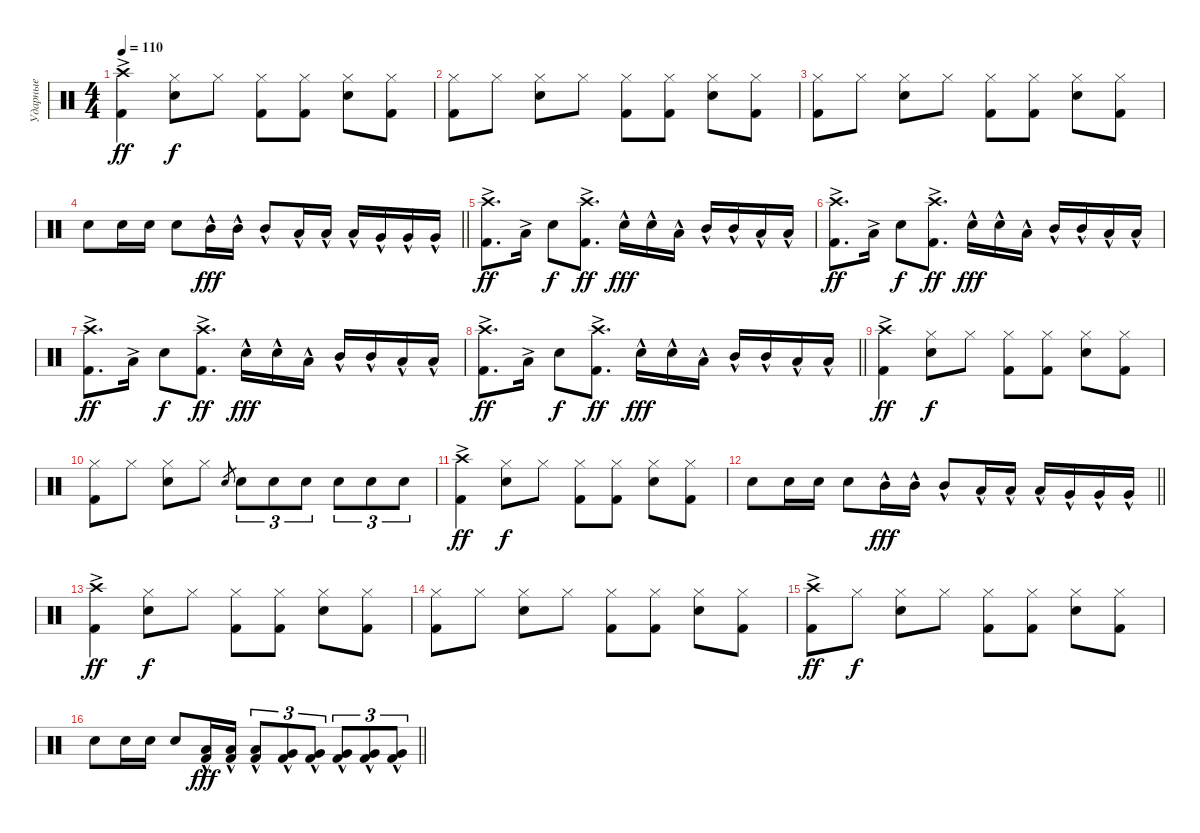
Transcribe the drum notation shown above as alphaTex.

\track ("Ударные" "Ударные") {instrument percussion}
\staff {score}
\articulation defaults
\ts (4 4)
\tempo 110
\clef neutral
\ks c
("Kick (hit) 2" "Crash high (hit)"{ac}).4{dy ff} ("Snare (hit) 2" "Hi-Hat (closed)").8{dy f} "Hi-Hat (closed)".8 ("Kick (hit) 2" "Hi-Hat (closed)").8 ("Kick (hit) 2" "Hi-Hat (closed)").8 ("Snare (hit) 2" "Hi-Hat (closed)").8 ("Kick (hit) 2" "Hi-Hat (closed)").8 |
("Kick (hit) 2" "Hi-Hat (closed)").8 "Hi-Hat (closed)".8 ("Snare (hit) 2" "Hi-Hat (closed)").8 "Hi-Hat (closed)".8 ("Kick (hit) 2" "Hi-Hat (closed)").8 ("Kick (hit) 2" "Hi-Hat (closed)").8 ("Snare (hit) 2" "Hi-Hat (closed)").8 ("Kick (hit) 2" "Hi-Hat (closed)").8 |
("Kick (hit) 2" "Hi-Hat (closed)").8 "Hi-Hat (closed)".8 ("Snare (hit) 2" "Hi-Hat (closed)").8 "Hi-Hat (closed)".8 ("Kick (hit) 2" "Hi-Hat (closed)").8 ("Kick (hit) 2" "Hi-Hat (closed)").8 ("Snare (hit) 2" "Hi-Hat (closed)").8 ("Kick (hit) 2" "Hi-Hat (closed)").8 |
\barLineRight lightlight "Snare (hit) 2".8 "Snare (hit) 2".16 "Snare (hit) 2".16 "Snare (hit) 2".8 "Mid Tom (hit)"{hac}.16{dy fff} "Mid Tom (hit)"{hac}.16 "Mid Tom (hit)"{hac}.8 "Low Tom (hit)"{hac}.16 "Low Tom (hit)"{hac}.16 "Low Tom (hit)"{hac}.16 "Very Low Tom (hit)"{hac}.16 "Very Low Tom (hit)"{hac}.16 "Very Low Tom (hit)"{hac}.16
|
("Kick (hit) 2" "Crash high (hit)"{ac}).8{d dy ff} "Low Tom (hit)"{ac}.16 "Snare (hit) 2".8{dy f} ("Kick (hit) 2" "Crash high (hit)"{ac}).8{d dy ff} "Snare (hit) 2"{hac}.16{dy fff} "Snare (hit) 2"{hac}.16 "Low Tom (hit)"{hac}.16 "Mid Tom (hit)"{hac}.16 "Mid Tom (hit)"{hac}.16 "Low Tom (hit)"{hac}.16 "Low Tom (hit)"{hac}.16 |
("Kick (hit) 2" "Crash high (hit)"{ac}).8{d dy ff} "Low Tom (hit)"{ac}.16 "Snare (hit) 2".8{dy f} ("Kick (hit) 2" "Crash high (hit)"{ac}).8{d dy ff} "Snare (hit) 2"{hac}.16{dy fff} "Snare (hit) 2"{hac}.16 "Low Tom (hit)"{hac}.16 "Mid Tom (hit)"{hac}.16 "Mid Tom (hit)"{hac}.16 "Low Tom (hit)"{hac}.16 "Low Tom (hit)"{hac}.16 |
("Kick (hit) 2" "Crash high (hit)"{ac}).8{d dy ff} "Low Tom (hit)"{ac}.16 "Snare (hit) 2".8{dy f} ("Kick (hit) 2" "Crash high (hit)"{ac}).8{d dy ff} "Snare (hit) 2"{hac}.16{dy fff} "Snare (hit) 2"{hac}.16 "Low Tom (hit)"{hac}.16 "Mid Tom (hit)"{hac}.16 "Mid Tom (hit)"{hac}.16 "Low Tom (hit)"{hac}.16 "Low Tom (hit)"{hac}.16 |
\barLineRight lightlight
("Kick (hit) 2" "Crash high (hit)"{ac}).8{d dy ff} "Low Tom (hit)"{ac}.16 "Snare (hit) 2".8{dy f} ("Kick (hit) 2" "Crash high (hit)"{ac}).8{d dy ff} "Snare (hit) 2"{hac}.16{dy fff} "Snare (hit) 2"{hac}.16 "Low Tom (hit)"{hac}.16 "Mid Tom (hit)"{hac}.16 "Mid Tom (hit)"{hac}.16 "Low Tom (hit)"{hac}.16 "Low Tom (hit)"{hac}.16 |
("Kick (hit) 2" "Crash high (hit)"{ac}).4{dy ff} ("Snare (hit) 2" "Hi-Hat (closed)").8{dy f} "Hi-Hat (closed)".8 ("Kick (hit) 2" "Hi-Hat (closed)").8 ("Kick (hit) 2" "Hi-Hat (closed)").8 ("Snare (hit) 2" "Hi-Hat (closed)").8 ("Kick (hit) 2" "Hi-Hat (closed)").8 |
("Kick (hit) 2" "Hi-Hat (closed)").8 "Hi-Hat (closed)".8 ("Snare (hit) 2" "Hi-Hat (closed)").8 "Hi-Hat (closed)".8 "Snare (hit) 2".8{gr} "Snare (hit) 2".8{tu (3 2)} "Snare (hit) 2".8{tu (3 2)} "Snare (hit) 2".8{tu (3 2)} "Snare (hit) 2".8{tu (3 2)} "Snare (hit) 2".8{tu (3 2)} "Snare (hit) 2".8{tu (3 2)} |
("Kick (hit) 2" "Crash high (hit)"{ac}).4{dy ff} ("Snare (hit) 2" "Hi-Hat (closed)").8{dy f} "Hi-Hat (closed)".8 ("Kick (hit) 2" "Hi-Hat (closed)").8 ("Kick (hit) 2" "Hi-Hat (closed)").8 ("Snare (hit) 2" "Hi-Hat (closed)").8 ("Kick (hit) 2" "Hi-Hat (closed)").8 |
\barLineRight lightlight "Snare (hit) 2".8 "Snare (hit) 2".16 "Snare (hit) 2".16 "Snare (hit) 2".8 "Mid Tom (hit)"{hac}.16{dy fff} "Mid Tom (hit)"{hac}.16 "Mid Tom (hit)"{hac}.8 "Low Tom (hit)"{hac}.16 "Low Tom (hit)"{hac}.16 "Low Tom (hit)"{hac}.16 "Very Low Tom (hit)"{hac}.16 "Very Low Tom (hit)"{hac}.16 "Very Low Tom (hit)"{hac}.16
|
("Kick (hit) 2" "Crash high (hit)"{ac}).4{dy ff} ("Snare (hit) 2" "Hi-Hat (closed)").8{dy f} "Hi-Hat (closed)".8 ("Kick (hit) 2" "Hi-Hat (closed)").8 ("Kick (hit) 2" "Hi-Hat (closed)").8 ("Snare (hit) 2" "Hi-Hat (closed)").8 ("Kick (hit) 2" "Hi-Hat (closed)").8 |
("Kick (hit) 2" "Hi-Hat (closed)").8 "Hi-Hat (closed)".8 ("Snare (hit) 2" "Hi-Hat (closed)").8 "Hi-Hat (closed)".8 ("Kick (hit) 2" "Hi-Hat (closed)").8 ("Kick (hit) 2" "Hi-Hat (closed)").8 ("Snare (hit) 2" "Hi-Hat (closed)").8 ("Kick (hit) 2" "Hi-Hat (closed)").8 |
("Kick (hit) 2" "Crash high (hit)"{ac}).8{dy ff} "Hi-Hat (closed)".8{dy f} ("Snare (hit) 2" "Hi-Hat (closed)").8 "Hi-Hat (closed)".8 ("Kick (hit) 2" "Hi-Hat (closed)").8 ("Kick (hit) 2" "Hi-Hat (closed)").8 ("Snare (hit) 2" "Hi-Hat (closed)").8 ("Kick (hit) 2" "Hi-Hat (closed)").8 |
\barLineRight lightlight "Snare (hit) 2".8 "Snare (hit) 2".16 "Snare (hit) 2".16 "Snare (hit) 2".8
("Kick (hit) 2" "Low Tom (hit)"{hac}).16{dy fff} ("Kick (hit) 2" "Low Tom (hit)"{hac}).16 ("Kick (hit) 2" "Low Tom (hit)"{hac}).8{tu (3 2)} ("Kick (hit) 2" "Very Low Tom (hit)"{hac}).8{tu (3 2)} ("Kick (hit) 2" "Very Low Tom (hit)"{hac}).8{tu (3 2)} ("Kick (hit) 2" "Very Low Tom (hit)"{hac}).8{tu (3 2)} ("Kick (hit) 2" "Very Low Tom (hit)"{hac}).8{tu (3 2)} ("Kick (hit) 2" "Very Low Tom (hit)"{hac}).8{tu (3 2)}
